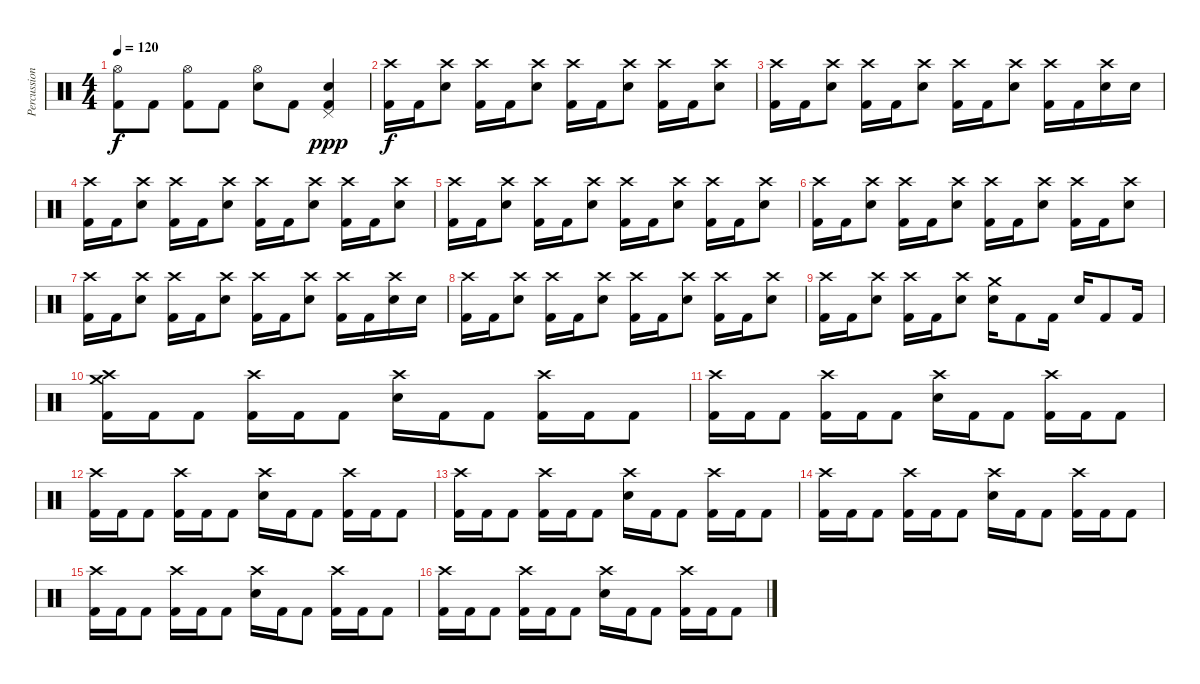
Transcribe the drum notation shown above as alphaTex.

\track ("Percussion" "Percussion") {instrument percussion}
\staff {score}
\articulation defaults
\ts (4 4)
\tempo 120
\clef neutral
\ks c
("Hi-Hat (open)" "Kick (hit) 2").8{dy f} "Kick (hit) 2".8 ("Hi-Hat (open)" "Kick (hit) 2").8 "Kick (hit) 2".8 ("Hi-Hat (open)" "Electric Snare (hit)").8 "Kick (hit) 2".8 ("Pedal Hi-Hat (hit)" "Electric Snare (hit)" "Kick (hit) 2").4{dy ppp} |
("Crash high (hit)" "Kick (hit) 2").16{dy f} "Kick (hit) 2".16 ("Crash high (hit)" "Electric Snare (hit)").8 ("Crash high (hit)" "Kick (hit) 2").16 "Kick (hit) 2".16 ("Crash high (hit)" "Electric Snare (hit)").8 ("Crash high (hit)" "Kick (hit) 2").16 "Kick (hit) 2".16 ("Crash high (hit)" "Electric Snare (hit)").8 ("Crash high (hit)" "Kick (hit) 2").16 "Kick (hit) 2".16 ("Crash high (hit)" "Electric Snare (hit)").8 |
("Crash high (hit)" "Kick (hit) 2").16 "Kick (hit) 2".16 ("Crash high (hit)" "Electric Snare (hit)").8 ("Crash high (hit)" "Kick (hit) 2").16 "Kick (hit) 2".16 ("Crash high (hit)" "Electric Snare (hit)").8 ("Crash high (hit)" "Kick (hit) 2").16 "Kick (hit) 2".16 ("Crash high (hit)" "Electric Snare (hit)").8 ("Crash high (hit)" "Kick (hit) 2").16 "Kick (hit) 2".16 ("Crash high (hit)" "Electric Snare (hit)").16 "Electric Snare (hit)".16 |
("Crash high (hit)" "Kick (hit) 2").16 "Kick (hit) 2".16 ("Crash high (hit)" "Electric Snare (hit)").8 ("Crash high (hit)" "Kick (hit) 2").16 "Kick (hit) 2".16 ("Crash high (hit)" "Electric Snare (hit)").8 ("Crash high (hit)" "Kick (hit) 2").16 "Kick (hit) 2".16 ("Crash high (hit)" "Electric Snare (hit)").8 ("Crash high (hit)" "Kick (hit) 2").16 "Kick (hit) 2".16 ("Crash high (hit)" "Electric Snare (hit)").8 |
("Crash high (hit)" "Kick (hit) 2").16 "Kick (hit) 2".16 ("Crash high (hit)" "Electric Snare (hit)").8 ("Crash high (hit)" "Kick (hit) 2").16 "Kick (hit) 2".16 ("Crash high (hit)" "Electric Snare (hit)").8 ("Crash high (hit)" "Kick (hit) 2").16 "Kick (hit) 2".16 ("Crash high (hit)" "Electric Snare (hit)").8 ("Crash high (hit)" "Kick (hit) 2").16 "Kick (hit) 2".16 ("Crash high (hit)" "Electric Snare (hit)").8 |
("Crash high (hit)" "Kick (hit) 2").16 "Kick (hit) 2".16 ("Crash high (hit)" "Electric Snare (hit)").8 ("Crash high (hit)" "Kick (hit) 2").16 "Kick (hit) 2".16 ("Crash high (hit)" "Electric Snare (hit)").8 ("Crash high (hit)" "Kick (hit) 2").16 "Kick (hit) 2".16 ("Crash high (hit)" "Electric Snare (hit)").8 ("Crash high (hit)" "Kick (hit) 2").16 "Kick (hit) 2".16 ("Crash high (hit)" "Electric Snare (hit)").8 |
("Crash high (hit)" "Kick (hit) 2").16 "Kick (hit) 2".16 ("Crash high (hit)" "Electric Snare (hit)").8 ("Crash high (hit)" "Kick (hit) 2").16 "Kick (hit) 2".16 ("Crash high (hit)" "Electric Snare (hit)").8 ("Crash high (hit)" "Kick (hit) 2").16 "Kick (hit) 2".16 ("Crash high (hit)" "Electric Snare (hit)").8 ("Crash high (hit)" "Kick (hit) 2").16 "Kick (hit) 2".16 ("Crash high (hit)" "Electric Snare (hit)").16 "Electric Snare (hit)".16 |
("Crash high (hit)" "Kick (hit) 2").16 "Kick (hit) 2".16 ("Crash high (hit)" "Electric Snare (hit)").8 ("Crash high (hit)" "Kick (hit) 2").16 "Kick (hit) 2".16 ("Crash high (hit)" "Electric Snare (hit)").8 ("Crash high (hit)" "Kick (hit) 2").16 "Kick (hit) 2".16 ("Crash high (hit)" "Electric Snare (hit)").8 ("Crash high (hit)" "Kick (hit) 2").16 "Kick (hit) 2".16 ("Crash high (hit)" "Electric Snare (hit)").8 |
("Crash high (hit)" "Kick (hit) 2").16 "Kick (hit) 2".16 ("Crash high (hit)" "Electric Snare (hit)").8 ("Crash high (hit)" "Kick (hit) 2").16 "Kick (hit) 2".16 ("Crash high (hit)" "Electric Snare (hit)").8 ("Crash medium (hit)" "Electric Snare (hit)").16 "Kick (hit) 2".8 "Kick (hit) 2".16 "Electric Snare (hit)".16 "Kick (hit) 2".8 "Kick (hit) 2".16 |
("Crash high (hit)" "Crash medium (hit)" "Kick (hit) 2").16 "Kick (hit) 2".16 "Kick (hit) 2".8 ("Crash high (hit)" "Kick (hit) 2").16 "Kick (hit) 2".16 "Kick (hit) 2".8 ("Crash high (hit)" "Electric Snare (hit)").16 "Kick (hit) 2".16 "Kick (hit) 2".8 ("Crash high (hit)" "Kick (hit) 2").16 "Kick (hit) 2".16 "Kick (hit) 2".8 |
("Crash high (hit)" "Kick (hit) 2").16 "Kick (hit) 2".16 "Kick (hit) 2".8 ("Crash high (hit)" "Kick (hit) 2").16 "Kick (hit) 2".16 "Kick (hit) 2".8 ("Crash high (hit)" "Electric Snare (hit)").16 "Kick (hit) 2".16 "Kick (hit) 2".8 ("Crash high (hit)" "Kick (hit) 2").16 "Kick (hit) 2".16 "Kick (hit) 2".8 |
("Crash high (hit)" "Kick (hit) 2").16 "Kick (hit) 2".16 "Kick (hit) 2".8 ("Crash high (hit)" "Kick (hit) 2").16 "Kick (hit) 2".16 "Kick (hit) 2".8 ("Crash high (hit)" "Electric Snare (hit)").16 "Kick (hit) 2".16 "Kick (hit) 2".8 ("Crash high (hit)" "Kick (hit) 2").16 "Kick (hit) 2".16 "Kick (hit) 2".8 |
("Crash high (hit)" "Kick (hit) 2").16 "Kick (hit) 2".16 "Kick (hit) 2".8 ("Crash high (hit)" "Kick (hit) 2").16 "Kick (hit) 2".16 "Kick (hit) 2".8 ("Crash high (hit)" "Electric Snare (hit)").16 "Kick (hit) 2".16 "Kick (hit) 2".8 ("Crash high (hit)" "Kick (hit) 2").16 "Kick (hit) 2".16 "Kick (hit) 2".8 |
("Crash high (hit)" "Kick (hit) 2").16 "Kick (hit) 2".16 "Kick (hit) 2".8 ("Crash high (hit)" "Kick (hit) 2").16 "Kick (hit) 2".16 "Kick (hit) 2".8 ("Crash high (hit)" "Electric Snare (hit)").16 "Kick (hit) 2".16 "Kick (hit) 2".8 ("Crash high (hit)" "Kick (hit) 2").16 "Kick (hit) 2".16 "Kick (hit) 2".8 |
("Crash high (hit)" "Kick (hit) 2").16 "Kick (hit) 2".16 "Kick (hit) 2".8 ("Crash high (hit)" "Kick (hit) 2").16 "Kick (hit) 2".16 "Kick (hit) 2".8 ("Crash high (hit)" "Electric Snare (hit)").16 "Kick (hit) 2".16 "Kick (hit) 2".8 ("Crash high (hit)" "Kick (hit) 2").16 "Kick (hit) 2".16 "Kick (hit) 2".8 |
("Crash high (hit)" "Kick (hit) 2").16 "Kick (hit) 2".16 "Kick (hit) 2".8 ("Crash high (hit)" "Kick (hit) 2").16 "Kick (hit) 2".16 "Kick (hit) 2".8 ("Crash high (hit)" "Electric Snare (hit)").16 "Kick (hit) 2".16 "Kick (hit) 2".8 ("Crash high (hit)" "Kick (hit) 2").16 "Kick (hit) 2".16 "Kick (hit) 2".8
